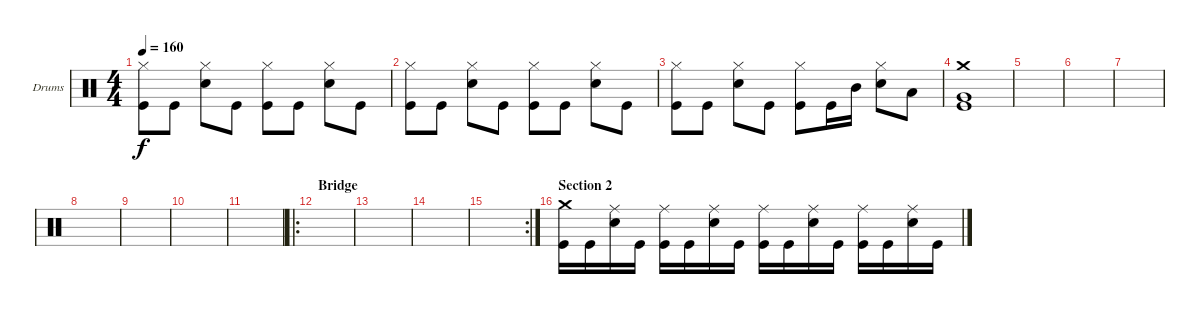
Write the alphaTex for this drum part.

\defaultSystemsLayout 4
\bracketExtendMode groupsimilarinstruments
\firstSystemTrackNameOrientation horizontal
\otherSystemsTrackNameOrientation horizontal
\track ("Drums" "Drums") {instrument percussion}
\staff {score}
\articulation defaults
\ts (4 4)
\tempo 160
\clef neutral
\scale
0.333333
\ks aminor
("Kick (hit)" "Hi-Hat (closed)").8{dy f} "Kick (hit)".8 ("Snare (hit) 2" "Hi-Hat (closed)").8 "Kick (hit)".8 ("Kick (hit)" "Hi-Hat (closed)").8 "Kick (hit)".8 ("Snare (hit) 2" "Hi-Hat (closed)").8 "Kick (hit)".8 |
\scale
0.333333 ("Kick (hit)" "Hi-Hat (closed)").8 "Kick (hit)".8 ("Snare (hit) 2" "Hi-Hat (closed)").8 "Kick (hit)".8 ("Kick (hit)" "Hi-Hat (closed)").8 "Kick (hit)".8 ("Snare (hit) 2" "Hi-Hat (closed)").8 "Kick (hit)".8 |
\scale
0.333333 ("Kick (hit)" "Hi-Hat (closed)").8 "Kick (hit)".8 ("Snare (hit) 2" "Hi-Hat (closed)").8 "Kick (hit)".8 ("Kick (hit)" "Hi-Hat (closed)").8 "Kick (hit)".16 "Mid Tom (hit)".16 ("Snare (hit) 2" "Hi-Hat (closed)").8 "Low Tom (hit)".8 |
\scale
0.333333 ("Kick (hit)" "Very Low Tom (hit)" "Crash medium (hit)").1 |
\scale
0.333333 |
\scale
0.333333 |
\scale
0.333333 |
\scale
0.333333 |
\scale
0.333333 |
\scale
0.311475 |
\scale
0.311475 |
\ro
\section ("" "Bridge")
\scale
0.377049 |
\scale
0.322034 |
\scale
0.322034 |
\rc 2
\scale
0.355932 |
\section ("" "Section 2")
\scale
0.451923 ("Kick (hit)" "Crash medium (hit)").16 "Kick (hit)".16 ("Snare (hit) 2" "Ride (middle)").16 "Kick (hit)".16 ("Kick (hit)" "Ride (middle)").16 "Kick (hit)".16 ("Snare (hit) 2" "Ride (middle)").16 "Kick (hit)".16 ("Kick (hit)" "Ride (middle)").16 "Kick (hit)".16 ("Snare (hit) 2" "Ride (middle)").16 "Kick (hit)".16 ("Kick (hit)" "Ride (middle)").16 "Kick (hit)".16 ("Snare (hit) 2" "Ride (middle)").16 "Kick (hit)".16
